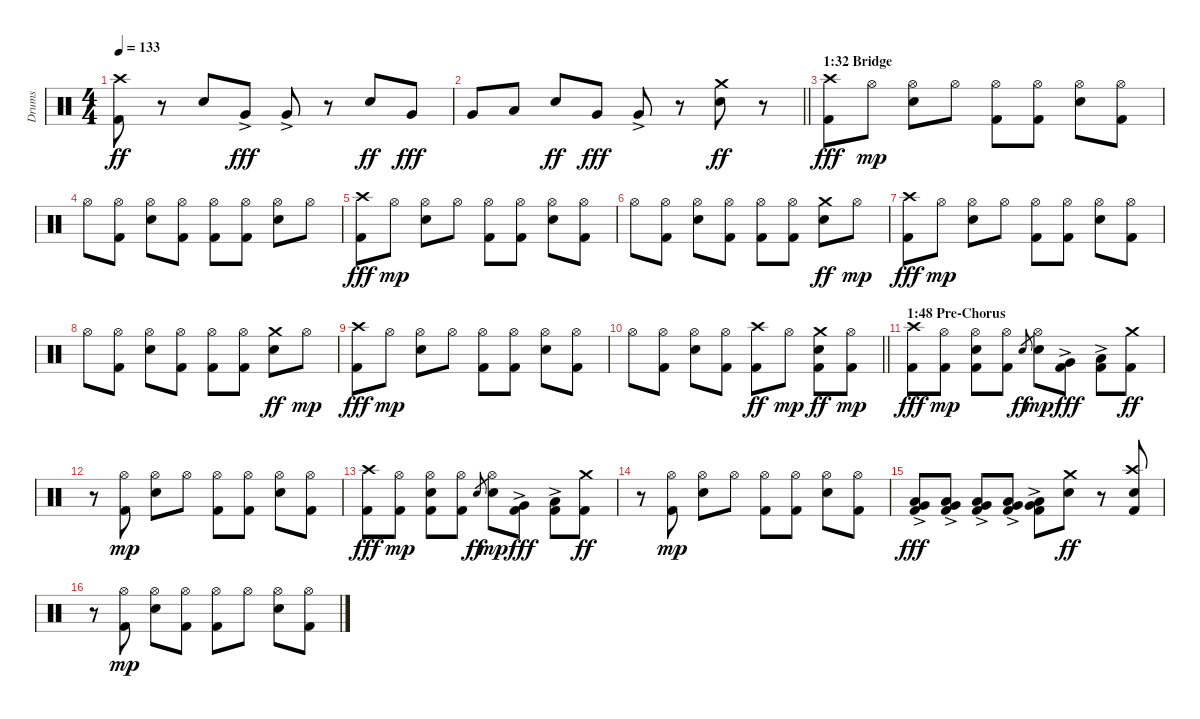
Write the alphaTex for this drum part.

\track ("Drums" "Drums") {instrument percussion}
\staff {score}
\articulation defaults
\ts (4 4)
\tempo 133
\clef neutral
\ks c
("Kick (hit) 2" "Crash high (hit)").8{dy ff} r.8 "Electric Snare (hit)".8 "Very Low Tom (hit)"{ac}.8{dy fff} "Very Low Tom (hit)"{ac}.8 r.8 "Electric Snare (hit)".8{dy ff} "Very Low Tom (hit)".8{dy fff} |
\barLineRight lightlight "Very Low Tom (hit)".8 "Low Tom (hit)".8 "Electric Snare (hit)".8{dy ff} "Very Low Tom (hit)".8{dy fff} "Very Low Tom (hit)"{ac}.8
r.8 ("Electric Snare (hit)" "Crash medium (hit)").8{dy ff} r.8 |
\section ("" "1:32 Bridge")
("Kick (hit) 2" "Crash high (hit)").8{dy fff} "Hi-Hat (open)".8{dy mp} ("Electric Snare (hit)" "Hi-Hat (open)").8 "Hi-Hat (open)".8 ("Kick (hit) 2" "Hi-Hat (open)").8 ("Kick (hit) 2" "Hi-Hat (open)").8 ("Electric Snare (hit)" "Hi-Hat (open)").8 ("Kick (hit) 2" "Hi-Hat (open)").8 |
"Hi-Hat (open)".8 ("Kick (hit) 2" "Hi-Hat (open)").8 ("Electric Snare (hit)" "Hi-Hat (open)").8 ("Kick (hit) 2" "Hi-Hat (open)").8 ("Kick (hit) 2" "Hi-Hat (open)").8 ("Kick (hit) 2" "Hi-Hat (open)").8 ("Electric Snare (hit)" "Hi-Hat (open)").8 "Hi-Hat (open)".8 |
("Kick (hit) 2" "Crash high (hit)").8{dy fff} "Hi-Hat (open)".8{dy mp} ("Electric Snare (hit)" "Hi-Hat (open)").8 "Hi-Hat (open)".8 ("Kick (hit) 2" "Hi-Hat (open)").8 ("Kick (hit) 2" "Hi-Hat (open)").8 ("Electric Snare (hit)" "Hi-Hat (open)").8 ("Kick (hit) 2" "Hi-Hat (open)").8 |
"Hi-Hat (open)".8 ("Kick (hit) 2" "Hi-Hat (open)").8 ("Electric Snare (hit)" "Hi-Hat (open)").8 ("Kick (hit) 2" "Hi-Hat (open)").8 ("Kick (hit) 2" "Hi-Hat (open)").8 ("Kick (hit) 2" "Hi-Hat (open)").8 ("Electric Snare (hit)" "Crash medium (hit)").8{dy ff} "Hi-Hat (open)".8{dy mp} |
("Kick (hit) 2" "Crash high (hit)").8{dy fff} "Hi-Hat (open)".8{dy mp} ("Electric Snare (hit)" "Hi-Hat (open)").8 "Hi-Hat (open)".8 ("Kick (hit) 2" "Hi-Hat (open)").8 ("Kick (hit) 2" "Hi-Hat (open)").8 ("Electric Snare (hit)" "Hi-Hat (open)").8 ("Kick (hit) 2" "Hi-Hat (open)").8 |
"Hi-Hat (open)".8 ("Kick (hit) 2" "Hi-Hat (open)").8 ("Electric Snare (hit)" "Hi-Hat (open)").8 ("Kick (hit) 2" "Hi-Hat (open)").8 ("Kick (hit) 2" "Hi-Hat (open)").8 ("Kick (hit) 2" "Hi-Hat (open)").8 ("Electric Snare (hit)" "Crash medium (hit)").8{dy ff} "Hi-Hat (open)".8{dy mp} |
("Kick (hit) 2" "Crash high (hit)").8{dy fff} "Hi-Hat (open)".8{dy mp} ("Electric Snare (hit)" "Hi-Hat (open)").8 "Hi-Hat (open)".8 ("Kick (hit) 2" "Hi-Hat (open)").8 ("Kick (hit) 2" "Hi-Hat (open)").8 ("Electric Snare (hit)" "Hi-Hat (open)").8 ("Kick (hit) 2" "Hi-Hat (open)").8 |
\barLineRight lightlight "Hi-Hat (open)".8
("Kick (hit) 2" "Hi-Hat (open)").8 ("Electric Snare (hit)" "Hi-Hat (open)").8 ("Kick (hit) 2" "Hi-Hat (open)").8 ("Kick (hit) 2" "Crash high (hit)").8{dy ff} "Hi-Hat (open)".8{dy mp} ("Kick (hit) 2" "Electric Snare (hit)" "Crash medium (hit)").8{dy ff} ("Kick (hit) 2" "Hi-Hat (open)").8{dy mp} |
\section ("" "1:48 Pre-Chorus")
("Kick (hit) 2" "Crash high (hit)").8{dy fff} ("Kick (hit) 2" "Hi-Hat (open)").8{dy mp} ("Kick (hit) 2" "Electric Snare (hit)" "Hi-Hat (open)").8 ("Kick (hit) 2" "Hi-Hat (open)").8 "Electric Snare (hit)".8{gr dy ff} ("Electric Snare (hit)" "Hi-Hat (open)").8{dy mp} ("Kick (hit) 2" "Very Low Tom (hit)"{ac}).8{dy fff} ("Kick (hit) 2" "Low Tom (hit)"{ac}).8 ("Kick (hit) 2" "Crash medium (hit)").8{dy ff} |
r.8 ("Kick (hit) 2" "Hi-Hat (open)").8{dy mp} ("Electric Snare (hit)" "Hi-Hat (open)").8 "Hi-Hat (open)".8 ("Kick (hit) 2" "Hi-Hat (open)").8 ("Kick (hit) 2" "Hi-Hat (open)").8 ("Electric Snare (hit)" "Hi-Hat (open)").8 ("Kick (hit) 2" "Hi-Hat (open)").8 |
("Kick (hit) 2" "Crash high (hit)").8{dy fff} ("Kick (hit) 2" "Hi-Hat (open)").8{dy mp} ("Kick (hit) 2" "Electric Snare (hit)" "Hi-Hat (open)").8 ("Kick (hit) 2" "Hi-Hat (open)").8 "Electric Snare (hit)".8{gr dy ff} ("Electric Snare (hit)" "Hi-Hat (open)").8{dy mp} ("Kick (hit) 2" "Very Low Tom (hit)"{ac}).8{dy fff} ("Kick (hit) 2" "Low Tom (hit)"{ac}).8 ("Kick (hit) 2" "Crash medium (hit)").8{dy ff} |
r.8 ("Kick (hit) 2" "Hi-Hat (open)").8{dy mp} ("Electric Snare (hit)" "Hi-Hat (open)").8 "Hi-Hat (open)".8 ("Kick (hit) 2" "Hi-Hat (open)").8 ("Kick (hit) 2" "Hi-Hat (open)").8 ("Electric Snare (hit)" "Hi-Hat (open)").8 ("Kick (hit) 2" "Hi-Hat (open)").8 |
("Kick (hit) 2" "Very Low Tom (hit)"{ac} "Low Tom (hit)").8{dy fff} ("Kick (hit) 2" "Very Low Tom (hit)"{ac} "Low Tom (hit)").8 ("Kick (hit) 2" "Very Low Tom (hit)"{ac} "Low Tom (hit)").8 ("Kick (hit) 2" "Very Low Tom (hit)"{ac} "Low Tom (hit)").8 ("Kick (hit) 2" "Very Low Tom (hit)"{ac} "Low Tom (hit)").8 ("Electric Snare (hit)" "Crash medium (hit)").8{dy ff} r.8 ("Kick (hit) 2" "Electric Snare (hit)" "Crash high (hit)").8 |
r.8 ("Kick (hit) 2" "Hi-Hat (open)").8{dy mp} ("Electric Snare (hit)" "Hi-Hat (open)").8 ("Kick (hit) 2" "Hi-Hat (open)").8 ("Kick (hit) 2" "Hi-Hat (open)").8 "Hi-Hat (open)".8 ("Electric Snare (hit)" "Hi-Hat (open)").8 ("Kick (hit) 2" "Hi-Hat (open)").8
